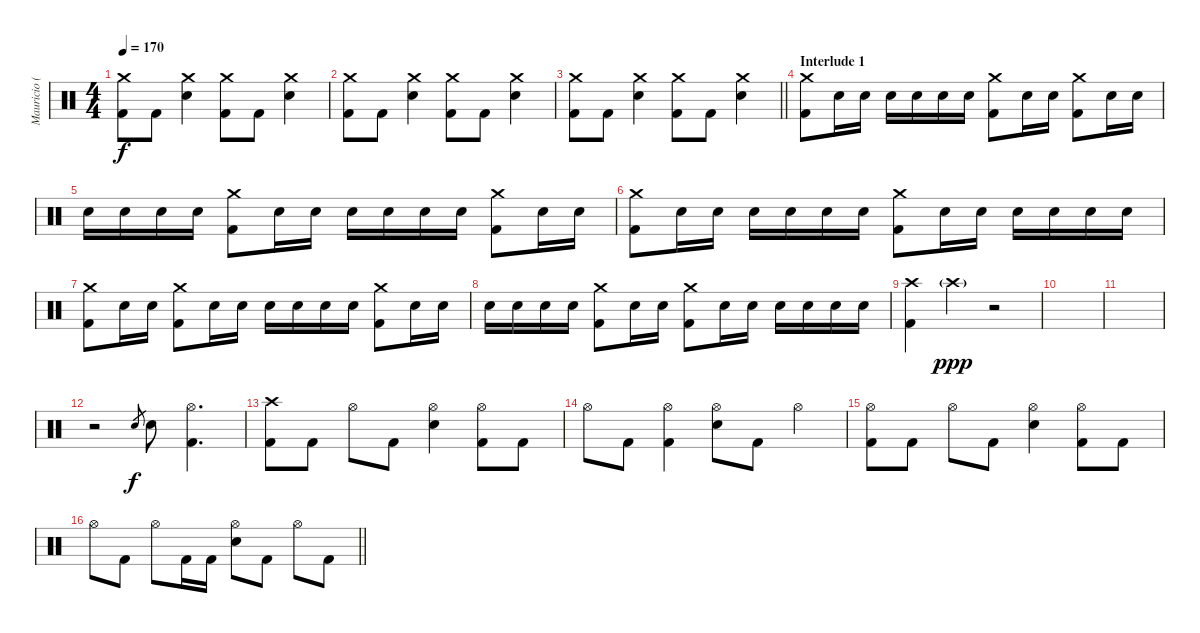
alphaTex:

\track ("Mauricio (Drum)" "Mauricio (") {instrument percussion}
\staff {score}
\articulation defaults
\ts (4 4)
\tempo 170
\clef neutral
\ks c
("Crash medium (hit)" "Kick (hit) 2").8{dy f} "Kick (hit) 2".8 ("Crash medium (hit)" "Snare (hit) 2").4 ("Crash medium (hit)" "Kick (hit) 2").8 "Kick (hit) 2".8 ("Crash medium (hit)" "Snare (hit) 2").4 |
("Crash medium (hit)" "Kick (hit) 2").8 "Kick (hit) 2".8 ("Crash medium (hit)" "Snare (hit) 2").4 ("Crash medium (hit)" "Kick (hit) 2").8 "Kick (hit) 2".8 ("Crash medium (hit)" "Snare (hit) 2").4 |
\barLineRight lightlight
("Crash medium (hit)" "Kick (hit) 2").8 "Kick (hit) 2".8 ("Crash medium (hit)" "Snare (hit) 2").4 ("Crash medium (hit)" "Kick (hit) 2").8 "Kick (hit) 2".8 ("Crash medium (hit)" "Snare (hit) 2").4 |
\section ("" "Interlude 1")
("Crash medium (hit)" "Kick (hit) 2").8 "Snare (hit) 2".16 "Snare (hit) 2".16 "Snare (hit) 2".16 "Snare (hit) 2".16 "Snare (hit) 2".16 "Snare (hit) 2".16 ("Crash medium (hit)" "Kick (hit) 2").8 "Snare (hit) 2".16 "Snare (hit) 2".16 ("Crash medium (hit)" "Kick (hit) 2").8 "Snare (hit) 2".16 "Snare (hit) 2".16 |
"Snare (hit) 2".16 "Snare (hit) 2".16 "Snare (hit) 2".16 "Snare (hit) 2".16 ("Crash medium (hit)" "Kick (hit) 2").8 "Snare (hit) 2".16 "Snare (hit) 2".16 "Snare (hit) 2".16 "Snare (hit) 2".16 "Snare (hit) 2".16 "Snare (hit) 2".16 ("Crash medium (hit)" "Kick (hit) 2").8 "Snare (hit) 2".16 "Snare (hit) 2".16 |
("Crash medium (hit)" "Kick (hit) 2").8 "Snare (hit) 2".16 "Snare (hit) 2".16 "Snare (hit) 2".16 "Snare (hit) 2".16 "Snare (hit) 2".16 "Snare (hit) 2".16 ("Crash medium (hit)" "Kick (hit) 2").8 "Snare (hit) 2".16 "Snare (hit) 2".16 "Snare (hit) 2".16 "Snare (hit) 2".16 "Snare (hit) 2".16 "Snare (hit) 2".16 |
("Crash medium (hit)" "Kick (hit) 2").8 "Snare (hit) 2".16 "Snare (hit) 2".16 ("Crash medium (hit)" "Kick (hit) 2").8 "Snare (hit) 2".16 "Snare (hit) 2".16 "Snare (hit) 2".16 "Snare (hit) 2".16 "Snare (hit) 2".16 "Snare (hit) 2".16 ("Crash medium (hit)" "Kick (hit) 2").8 "Snare (hit) 2".16 "Snare (hit) 2".16 |
"Snare (hit) 2".16 "Snare (hit) 2".16 "Snare (hit) 2".16 "Snare (hit) 2".16 ("Crash medium (hit)" "Kick (hit) 2").8 "Snare (hit) 2".16 "Snare (hit) 2".16 ("Crash medium (hit)" "Kick (hit) 2").8 "Snare (hit) 2".16 "Snare (hit) 2".16 "Snare (hit) 2".16 "Snare (hit) 2".16 "Snare (hit) 2".16 "Snare (hit) 2".16 |
("Crash high (hit)" "Kick (hit) 2").4 "Crash high (hit)"{g}.4{dy ppp} r.2 |
|
|
r.2 "Snare (hit) 2".8{gr dy f} "Snare (hit) 2".8 ("Hi-Hat (open)" "Kick (hit) 2").4{d} |
("Crash high (hit)" "Kick (hit) 2").8 "Kick (hit) 2".8 "Hi-Hat (open)".8 "Kick (hit) 2".8 ("Hi-Hat (open)" "Snare (hit) 2").4 ("Hi-Hat (open)" "Kick (hit) 2").8 "Kick (hit) 2".8 |
"Hi-Hat (open)".8 "Kick (hit) 2".8 ("Hi-Hat (open)" "Kick (hit) 2").4 ("Hi-Hat (open)" "Snare (hit) 2").8 "Kick (hit) 2".8 "Hi-Hat (open)".4 |
("Hi-Hat (open)" "Kick (hit) 2").8 "Kick (hit) 2".8 "Hi-Hat (open)".8 "Kick (hit) 2".8 ("Hi-Hat (open)" "Snare (hit) 2").4 ("Hi-Hat (open)" "Kick (hit) 2").8 "Kick (hit) 2".8 |
\barLineRight lightlight "Hi-Hat (open)".8 "Kick (hit) 2".8 "Hi-Hat (open)".8 "Kick (hit) 2".16 "Kick (hit) 2".16
("Hi-Hat (open)" "Snare (hit) 2").8 "Kick (hit) 2".8 "Hi-Hat (open)".8 "Kick (hit) 2".8
